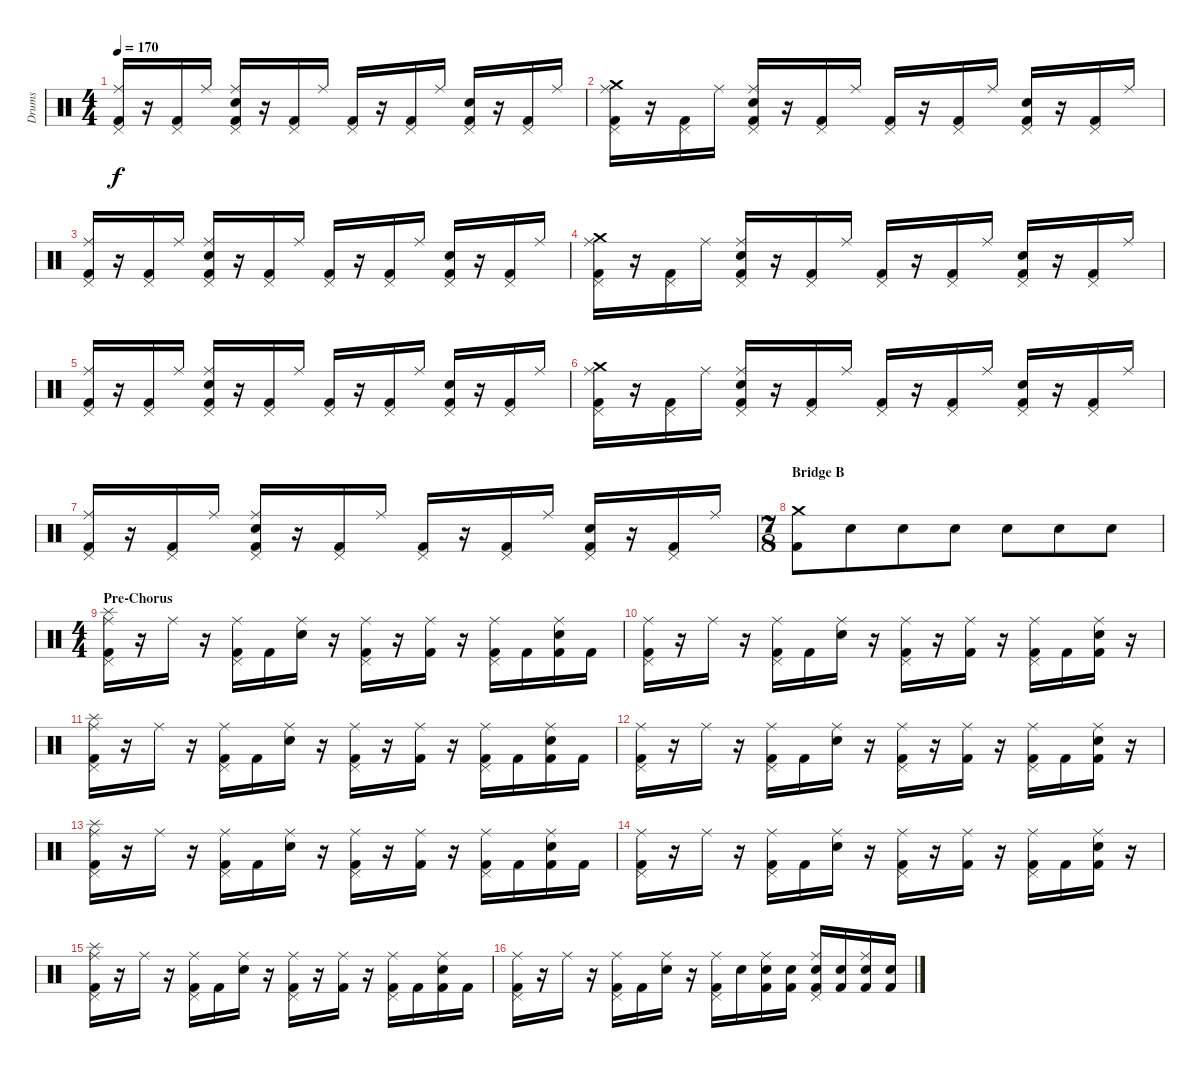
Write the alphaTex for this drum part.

\track ("Drums" "Drums") {instrument percussion}
\staff {score}
\articulation defaults
\ts (4 4)
\tempo 170
\clef neutral
\ks c
("Kick (hit) 2" "Pedal Hi-Hat (hit)" "Ride (middle)").16{dy f} r.16 ("Kick (hit) 2" "Pedal Hi-Hat (hit)").16 "Ride (middle)".16 ("Kick (hit) 2" "Pedal Hi-Hat (hit)" "Snare (hit) 2" "Ride (middle)").16 r.16 ("Kick (hit) 2" "Pedal Hi-Hat (hit)").16 "Ride (middle)".16 ("Kick (hit) 2" "Pedal Hi-Hat (hit)").16 r.16 ("Kick (hit) 2" "Pedal Hi-Hat (hit)").16 "Ride (middle)".16 ("Kick (hit) 2" "Pedal Hi-Hat (hit)" "Snare (hit) 2").16 r.16 ("Kick (hit) 2" "Pedal Hi-Hat (hit)").16 "Ride (middle)".16 |
("Kick (hit) 2" "Pedal Hi-Hat (hit)" "Ride (middle)" "Crash medium (hit)").16 r.16 ("Kick (hit) 2" "Pedal Hi-Hat (hit)").16 "Ride (middle)".16 ("Kick (hit) 2" "Pedal Hi-Hat (hit)" "Snare (hit) 2" "Ride (middle)").16 r.16 ("Kick (hit) 2" "Pedal Hi-Hat (hit)").16 "Ride (middle)".16 ("Kick (hit) 2" "Pedal Hi-Hat (hit)").16 r.16 ("Kick (hit) 2" "Pedal Hi-Hat (hit)").16 "Ride (middle)".16 ("Kick (hit) 2" "Pedal Hi-Hat (hit)" "Snare (hit) 2").16 r.16 ("Kick (hit) 2" "Pedal Hi-Hat (hit)").16 "Ride (middle)".16 |
("Kick (hit) 2" "Pedal Hi-Hat (hit)" "Ride (middle)").16 r.16 ("Kick (hit) 2" "Pedal Hi-Hat (hit)").16 "Ride (middle)".16 ("Kick (hit) 2" "Pedal Hi-Hat (hit)" "Snare (hit) 2" "Ride (middle)").16 r.16 ("Kick (hit) 2" "Pedal Hi-Hat (hit)").16 "Ride (middle)".16 ("Kick (hit) 2" "Pedal Hi-Hat (hit)").16 r.16 ("Kick (hit) 2" "Pedal Hi-Hat (hit)").16 "Ride (middle)".16 ("Kick (hit) 2" "Pedal Hi-Hat (hit)" "Snare (hit) 2").16 r.16 ("Kick (hit) 2" "Pedal Hi-Hat (hit)").16 "Ride (middle)".16 |
("Kick (hit) 2" "Pedal Hi-Hat (hit)" "Ride (middle)" "Crash medium (hit)").16 r.16 ("Kick (hit) 2" "Pedal Hi-Hat (hit)").16 "Ride (middle)".16 ("Kick (hit) 2" "Pedal Hi-Hat (hit)" "Snare (hit) 2" "Ride (middle)").16 r.16 ("Kick (hit) 2" "Pedal Hi-Hat (hit)").16 "Ride (middle)".16 ("Kick (hit) 2" "Pedal Hi-Hat (hit)").16 r.16 ("Kick (hit) 2" "Pedal Hi-Hat (hit)").16 "Ride (middle)".16 ("Kick (hit) 2" "Pedal Hi-Hat (hit)" "Snare (hit) 2").16 r.16 ("Kick (hit) 2" "Pedal Hi-Hat (hit)").16 "Ride (middle)".16 |
("Kick (hit) 2" "Pedal Hi-Hat (hit)" "Ride (middle)").16 r.16 ("Kick (hit) 2" "Pedal Hi-Hat (hit)").16 "Ride (middle)".16 ("Kick (hit) 2" "Pedal Hi-Hat (hit)" "Snare (hit) 2" "Ride (middle)").16 r.16 ("Kick (hit) 2" "Pedal Hi-Hat (hit)").16 "Ride (middle)".16 ("Kick (hit) 2" "Pedal Hi-Hat (hit)").16 r.16 ("Kick (hit) 2" "Pedal Hi-Hat (hit)").16 "Ride (middle)".16 ("Kick (hit) 2" "Pedal Hi-Hat (hit)" "Snare (hit) 2").16 r.16 ("Kick (hit) 2" "Pedal Hi-Hat (hit)").16 "Ride (middle)".16 |
("Kick (hit) 2" "Pedal Hi-Hat (hit)" "Ride (middle)" "Crash medium (hit)").16 r.16 ("Kick (hit) 2" "Pedal Hi-Hat (hit)").16 "Ride (middle)".16 ("Kick (hit) 2" "Pedal Hi-Hat (hit)" "Snare (hit) 2" "Ride (middle)").16 r.16 ("Kick (hit) 2" "Pedal Hi-Hat (hit)").16 "Ride (middle)".16 ("Kick (hit) 2" "Pedal Hi-Hat (hit)").16 r.16 ("Kick (hit) 2" "Pedal Hi-Hat (hit)").16 "Ride (middle)".16 ("Kick (hit) 2" "Pedal Hi-Hat (hit)" "Snare (hit) 2").16 r.16 ("Kick (hit) 2" "Pedal Hi-Hat (hit)").16 "Ride (middle)".16 |
("Kick (hit) 2" "Pedal Hi-Hat (hit)" "Ride (middle)").16 r.16 ("Kick (hit) 2" "Pedal Hi-Hat (hit)").16 "Ride (middle)".16 ("Kick (hit) 2" "Pedal Hi-Hat (hit)" "Snare (hit) 2" "Ride (middle)").16 r.16 ("Kick (hit) 2" "Pedal Hi-Hat (hit)").16 "Ride (middle)".16 ("Kick (hit) 2" "Pedal Hi-Hat (hit)").16 r.16 ("Kick (hit) 2" "Pedal Hi-Hat (hit)").16 "Ride (middle)".16 ("Kick (hit) 2" "Pedal Hi-Hat (hit)" "Snare (hit) 2").16 r.16 ("Kick (hit) 2" "Pedal Hi-Hat (hit)").16 "Ride (middle)".16 |
\ts (7 8)
\section ("" "Bridge B")
("Kick (hit) 2" "Crash medium (hit)").8 "Snare (hit) 2".8 "Snare (hit) 2".8 "Snare (hit) 2".8 "Snare (hit) 2".8 "Snare (hit) 2".8 "Snare (hit) 2".8 |
\ts (4 4)
\section ("" "Pre-Chorus")
("Kick (hit) 2" "Pedal Hi-Hat (hit)" "Splash (hit)" "Ride (middle)").16 r.16 "Ride (middle)".16 r.16 ("Kick (hit) 2" "Pedal Hi-Hat (hit)" "Ride (middle)").16 "Kick (hit) 2".16 ("Snare (hit) 2" "Ride (middle)").16 r.16 ("Kick (hit) 2" "Pedal Hi-Hat (hit)" "Ride (middle)").16 r.16 ("Kick (hit) 2" "Ride (middle)").16 r.16 ("Kick (hit) 2" "Pedal Hi-Hat (hit)" "Ride (middle)").16 "Kick (hit) 2".16 ("Kick (hit) 2" "Snare (hit) 2" "Ride (middle)").16 "Kick (hit) 2".16 |
("Kick (hit) 2" "Pedal Hi-Hat (hit)" "Ride (middle)").16 r.16 "Ride (middle)".16 r.16 ("Kick (hit) 2" "Pedal Hi-Hat (hit)" "Ride (middle)").16 "Kick (hit) 2".16 ("Snare (hit) 2" "Ride (middle)").16 r.16 ("Kick (hit) 2" "Pedal Hi-Hat (hit)" "Ride (middle)").16 r.16 ("Kick (hit) 2" "Ride (middle)").16 r.16 ("Kick (hit) 2" "Pedal Hi-Hat (hit)" "Ride (middle)").16 "Kick (hit) 2".16 ("Kick (hit) 2" "Snare (hit) 2" "Ride (middle)").16 r.16 |
("Kick (hit) 2" "Pedal Hi-Hat (hit)" "Splash (hit)" "Ride (middle)").16 r.16 "Ride (middle)".16 r.16 ("Kick (hit) 2" "Pedal Hi-Hat (hit)" "Ride (middle)").16 "Kick (hit) 2".16 ("Snare (hit) 2" "Ride (middle)").16 r.16 ("Kick (hit) 2" "Pedal Hi-Hat (hit)" "Ride (middle)").16 r.16 ("Kick (hit) 2" "Ride (middle)").16 r.16 ("Kick (hit) 2" "Pedal Hi-Hat (hit)" "Ride (middle)").16 "Kick (hit) 2".16 ("Kick (hit) 2" "Snare (hit) 2" "Ride (middle)").16 "Kick (hit) 2".16 |
("Kick (hit) 2" "Pedal Hi-Hat (hit)" "Ride (middle)").16 r.16 "Ride (middle)".16 r.16 ("Kick (hit) 2" "Pedal Hi-Hat (hit)" "Ride (middle)").16 "Kick (hit) 2".16 ("Snare (hit) 2" "Ride (middle)").16 r.16 ("Kick (hit) 2" "Pedal Hi-Hat (hit)" "Ride (middle)").16 r.16 ("Kick (hit) 2" "Ride (middle)").16 r.16 ("Kick (hit) 2" "Pedal Hi-Hat (hit)" "Ride (middle)").16 "Kick (hit) 2".16 ("Kick (hit) 2" "Snare (hit) 2" "Ride (middle)").16 r.16 |
("Kick (hit) 2" "Pedal Hi-Hat (hit)" "Splash (hit)" "Ride (middle)").16 r.16 "Ride (middle)".16 r.16 ("Kick (hit) 2" "Pedal Hi-Hat (hit)" "Ride (middle)").16 "Kick (hit) 2".16 ("Snare (hit) 2" "Ride (middle)").16 r.16 ("Kick (hit) 2" "Pedal Hi-Hat (hit)" "Ride (middle)").16 r.16 ("Kick (hit) 2" "Ride (middle)").16 r.16 ("Kick (hit) 2" "Pedal Hi-Hat (hit)" "Ride (middle)").16 "Kick (hit) 2".16 ("Kick (hit) 2" "Snare (hit) 2" "Ride (middle)").16 "Kick (hit) 2".16 |
("Kick (hit) 2" "Pedal Hi-Hat (hit)" "Ride (middle)").16 r.16 "Ride (middle)".16 r.16 ("Kick (hit) 2" "Pedal Hi-Hat (hit)" "Ride (middle)").16 "Kick (hit) 2".16 ("Snare (hit) 2" "Ride (middle)").16 r.16 ("Kick (hit) 2" "Pedal Hi-Hat (hit)" "Ride (middle)").16 r.16 ("Kick (hit) 2" "Ride (middle)").16 r.16 ("Kick (hit) 2" "Pedal Hi-Hat (hit)" "Ride (middle)").16 "Kick (hit) 2".16 ("Kick (hit) 2" "Snare (hit) 2" "Ride (middle)").16 r.16 |
("Kick (hit) 2" "Pedal Hi-Hat (hit)" "Splash (hit)" "Ride (middle)").16 r.16 "Ride (middle)".16 r.16 ("Kick (hit) 2" "Pedal Hi-Hat (hit)" "Ride (middle)").16 "Kick (hit) 2".16 ("Snare (hit) 2" "Ride (middle)").16 r.16 ("Kick (hit) 2" "Pedal Hi-Hat (hit)" "Ride (middle)").16 r.16 ("Kick (hit) 2" "Ride (middle)").16 r.16 ("Kick (hit) 2" "Pedal Hi-Hat (hit)" "Ride (middle)").16 "Kick (hit) 2".16 ("Kick (hit) 2" "Snare (hit) 2" "Ride (middle)").16 "Kick (hit) 2".16 |
("Kick (hit) 2" "Pedal Hi-Hat (hit)" "Ride (middle)").16 r.16 "Ride (middle)".16 r.16 ("Kick (hit) 2" "Pedal Hi-Hat (hit)" "Ride (middle)").16 "Kick (hit) 2".16 ("Snare (hit) 2" "Ride (middle)").16 r.16 ("Kick (hit) 2" "Pedal Hi-Hat (hit)" "Ride (middle)").16 "Snare (hit)".16 ("Kick (hit) 2" "Snare (hit) 2" "Ride (middle)").16 ("Kick (hit) 2" "Snare (hit) 2").16 ("Kick (hit) 2" "Snare (hit) 2" "Pedal Hi-Hat (hit)" "Ride (middle)").16 ("Kick (hit) 2" "Snare (hit) 2").16 ("Kick (hit) 2" "Snare (hit) 2" "Ride (middle)").16 ("Kick (hit) 2" "Snare (hit) 2").16
